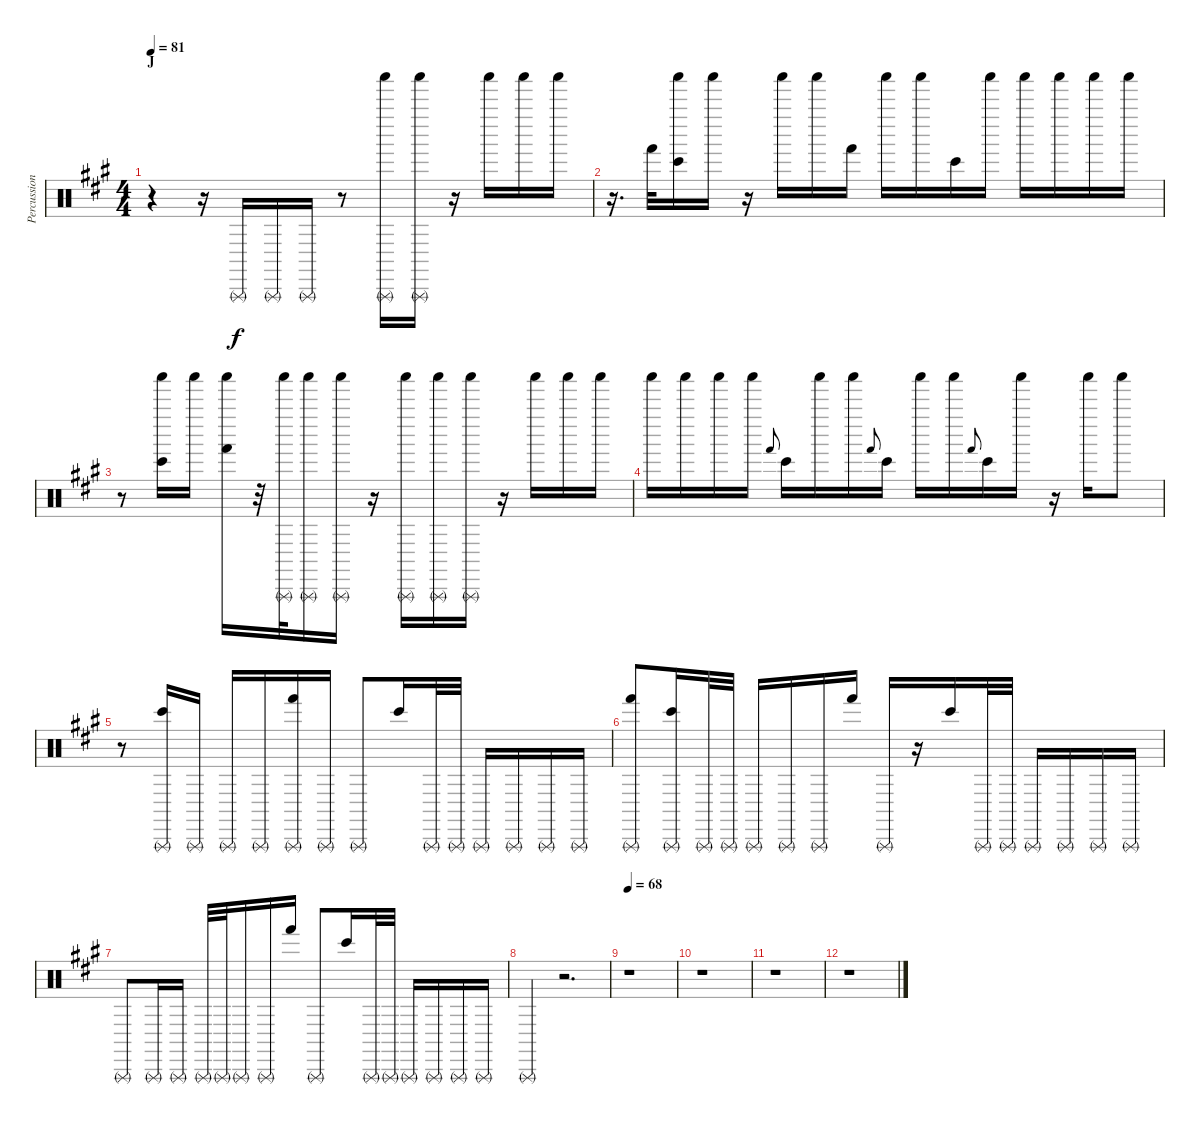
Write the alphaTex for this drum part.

\track ("Percussion" "Percussion") {instrument percussion}
\staff {score}
\articulation defaults
\ts (4 4)
\section ("" "J")
\tempo 81
\clef neutral
\ks f#minor
r.4{dy f} r.16 "Triangle (rnute)".16 "Triangle (rnute)".16 "Triangle (rnute)".16 r.8 ("Shaker (hit)" "Triangle (rnute)").16 ("Shaker (hit)" "Triangle (rnute)").16 r.16 "Shaker (hit)".16 "Shaker (hit)".16 "Shaker (hit)".16 |
r.16{d} "Hand (hit)".32 ("Shaker (hit)" "Bongo High (hit)").16 "Shaker (hit)".16 r.16 "Shaker (hit)".16 "Shaker (hit)".16 "Hand (hit)".16 "Shaker (hit)".16 "Shaker (hit)".16 "Bongo High (hit)".16 "Shaker (hit)".16 "Shaker (hit)".16 "Shaker (hit)".16 "Shaker (hit)".16 "Shaker (hit)".16 |
r.8 ("Shaker (hit)" "Bongo High (hit)").16 "Shaker (hit)".16 ("Shaker (hit)" "Hand (hit)").16 r.32 ("Shaker (hit)" "Triangle (rnute)").32 ("Shaker (hit)" "Triangle (rnute)").16 ("Shaker (hit)" "Triangle (rnute)").16 r.16 ("Shaker (hit)" "Triangle (rnute)").16 ("Shaker (hit)" "Triangle (rnute)").16 ("Shaker (hit)" "Triangle (rnute)").16 r.16 "Shaker (hit)".16 "Shaker (hit)".16 "Shaker (hit)".16 |
"Shaker (hit)".16 "Shaker (hit)".16 "Shaker (hit)".16 "Shaker (hit)".16 "Hand (hit)".8{gr onbeat} "Bongo High (hit)".16 "Shaker (hit)".16 "Shaker (hit)".16 "Hand (hit)".8{gr onbeat} "Bongo High (hit)".16 "Shaker (hit)".16 "Shaker (hit)".16 "Hand (hit)".8{gr onbeat} "Bongo High (hit)".16 "Shaker (hit)".16 r.16 "Shaker (hit)".16 "Shaker (hit)".8 |
r.8 ("Triangle (rnute)" "Bongo High (hit)").16 "Triangle (rnute)".16 "Triangle (rnute)".16 "Triangle (rnute)".16 ("Triangle (rnute)" "Hand (hit)").16 "Triangle (rnute)".16 "Triangle (rnute)".8 "Bongo High (hit)".16 "Triangle (rnute)".32 "Triangle (rnute)".32 "Triangle (rnute)".16 "Triangle (rnute)".16 "Triangle (rnute)".16 "Triangle (rnute)".16 |
("Triangle (rnute)" "Hand (hit)").8 ("Triangle (rnute)" "Bongo High (hit)").16 "Triangle (rnute)".32 "Triangle (rnute)".32 "Triangle (rnute)".16 "Triangle (rnute)".16 "Triangle (rnute)".16 "Hand (hit)".16 "Triangle (rnute)".16 r.16 "Bongo High (hit)".16 "Triangle (rnute)".32 "Triangle (rnute)".32 "Triangle (rnute)".16 "Triangle (rnute)".16 "Triangle (rnute)".16 "Triangle (rnute)".16 |
"Triangle (rnute)".8 "Triangle (rnute)".16 "Triangle (rnute)".16 "Triangle (rnute)".32 "Triangle (rnute)".32 "Triangle (rnute)".16 "Triangle (rnute)".16 "Hand (hit)".16 "Triangle (rnute)".8 "Bongo High (hit)".16 "Triangle (rnute)".32 "Triangle (rnute)".32 "Triangle (rnute)".16 "Triangle (rnute)".16 "Triangle (rnute)".16 "Triangle (rnute)".16 |
"Triangle (rnute)".4 r.2{d} |
\tempo 68
r.1 |
r.1 |
r.1 |
r.1
